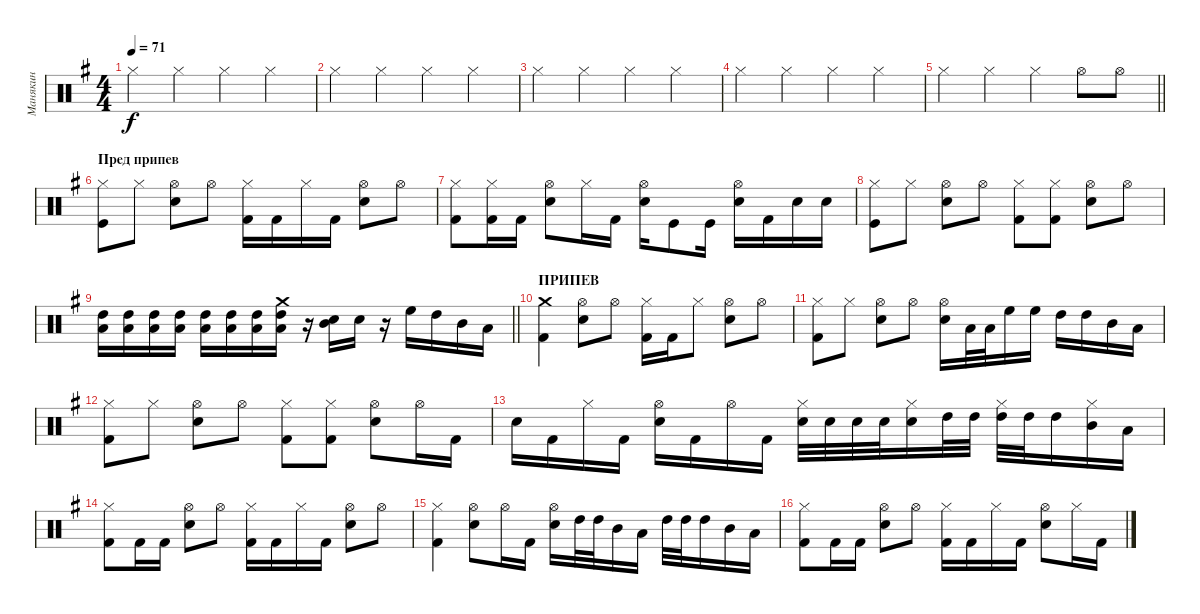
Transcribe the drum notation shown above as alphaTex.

\track ("Манякин" "Манякин") {instrument percussion}
\staff {score}
\articulation defaults
\ts (4 4)
\tempo 71
\clef neutral
\ks eminor "Hi-Hat (closed)".4{dy f} "Hi-Hat (closed)".4 "Hi-Hat (closed)".4 "Hi-Hat (closed)".4
|
"Hi-Hat (closed)".4 "Hi-Hat (closed)".4 "Hi-Hat (closed)".4 "Hi-Hat (closed)".4 |
"Hi-Hat (closed)".4 "Hi-Hat (closed)".4 "Hi-Hat (closed)".4 "Hi-Hat (closed)".4 |
"Hi-Hat (closed)".4 "Hi-Hat (closed)".4 "Hi-Hat (closed)".4 "Hi-Hat (closed)".4 |
\barLineRight lightlight "Hi-Hat (closed)".4 "Hi-Hat (closed)".4 "Hi-Hat (closed)".4 "Hi-Hat (open)".8 "Hi-Hat (open)".8
|
\section ("" "Пред припев")
("Hi-Hat (closed)" "Kick (hit)").8 "Hi-Hat (closed)".8 ("Hi-Hat (open)" "Snare (hit) 2").8 "Hi-Hat (open)".8 ("Hi-Hat (closed)" "Kick (hit) 2").16 "Kick (hit) 2".16 "Hi-Hat (closed)".16 "Kick (hit) 2".16 ("Hi-Hat (open)" "Snare (hit) 2").8 "Hi-Hat (open)".8 |
("Hi-Hat (closed)" "Kick (hit) 2").8 ("Hi-Hat (closed)" "Kick (hit) 2").16 "Kick (hit) 2".16 ("Hi-Hat (open)" "Snare (hit) 2").8 "Hi-Hat (closed)".16 "Kick (hit) 2".16 ("Hi-Hat (open)" "Snare (hit) 2").16 "Kick (hit)".8 "Kick (hit)".16 ("Hi-Hat (open)" "Snare (hit) 2").16 "Kick (hit) 2".16 "Snare (hit) 2".16 "Snare (hit) 2".16 |
("Hi-Hat (closed)" "Kick (hit)").8 "Hi-Hat (closed)".8 ("Hi-Hat (open)" "Snare (hit) 2").8 "Hi-Hat (open)".8 ("Hi-Hat (closed)" "Kick (hit) 2").8 ("Hi-Hat (closed)" "Kick (hit) 2").8 ("Hi-Hat (open)" "Snare (hit) 2").8 "Hi-Hat (open)".8 |
\barLineRight lightlight
("Low Tom (hit)" "High Tom (hit)").16 ("Low Tom (hit)" "High Tom (hit)").16 ("Low Tom (hit)" "High Tom (hit)").16 ("Low Tom (hit)" "High Tom (hit)").16 ("Low Tom (hit)" "High Tom (hit)").16 ("Low Tom (hit)" "High Tom (hit)").16 ("Low Tom (hit)" "High Tom (hit)").16 ("Crash medium (hit)" "Low Tom (hit)" "High Tom (hit)").16 r.16 ("Mid Tom (hit)" "Snare (hit) 2").16 "Snare (hit) 2".16 r.16 "High Floor Tom (hit)".16 "High Tom (hit)".16 "Mid Tom (hit)".16 "Low Tom (hit)".16 |
\section ("" "ПРИПЕВ")
("Crash medium (hit)" "Kick (hit) 2").4 ("Hi-Hat (open)" "Snare (hit) 2").8 "Hi-Hat (open)".8 ("Hi-Hat (closed)" "Kick (hit) 2").16 "Kick (hit) 2".16 "Hi-Hat (closed)".8 ("Hi-Hat (open)" "Snare (hit) 2").8 "Hi-Hat (open)".8 |
("Hi-Hat (closed)" "Kick (hit) 2").8 "Hi-Hat (closed)".8 ("Hi-Hat (open)" "Snare (hit) 2").8 "Hi-Hat (open)".8 ("Hi-Hat (open)" "Snare (hit) 2").16 "Low Tom (hit)".32 "Low Tom (hit)".32 "High Floor Tom (hit)".16 "High Floor Tom (hit)".16 "High Tom (hit)".16 "High Tom (hit)".16 "Mid Tom (hit)".16 "Low Tom (hit)".16 |
("Hi-Hat (closed)" "Kick (hit) 2").8 "Hi-Hat (closed)".8 ("Hi-Hat (open)" "Snare (hit) 2").8 "Hi-Hat (open)".8 ("Hi-Hat (closed)" "Kick (hit) 2").8 ("Hi-Hat (closed)" "Kick (hit) 2").8 ("Hi-Hat (open)" "Snare (hit) 2").8 "Hi-Hat (open)".16 "Kick (hit) 2".16 |
"Snare (hit) 2".16 "Kick (hit) 2".16 "Hi-Hat (closed)".16 "Kick (hit) 2".16 ("Hi-Hat (open)" "Snare (hit) 2").16 "Kick (hit) 2".16 "Hi-Hat (open)".16 "Kick (hit) 2".16 ("Hi-Hat (closed)" "Snare (hit) 2").32 "Snare (hit) 2".32 "Snare (hit) 2".32 "Snare (hit) 2".32 ("Hi-Hat (closed)" "Snare (hit) 2").16 "High Tom (hit)".32 "High Tom (hit)".32 ("Hi-Hat (closed)" "High Tom (hit)").32 "High Tom (hit)".32 "High Tom (hit)".16 ("Hi-Hat (closed)" "Mid Tom (hit)").16 "Low Tom (hit)".16 |
("Hi-Hat (closed)" "Kick (hit) 2").8 "Kick (hit) 2".16 "Kick (hit) 2".16 ("Hi-Hat (open)" "Snare (hit) 2").8 "Hi-Hat (open)".8 ("Hi-Hat (closed)" "Kick (hit) 2").16 "Kick (hit) 2".16 "Hi-Hat (closed)".16 "Kick (hit) 2".16 ("Hi-Hat (open)" "Snare (hit) 2").8 "Hi-Hat (open)".8 |
("Hi-Hat (closed)" "Kick (hit) 2").4 ("Hi-Hat (open)" "Snare (hit) 2").8 "Hi-Hat (open)".16 "Kick (hit) 2".16 ("Hi-Hat (open)" "Snare (hit) 2").16 "High Tom (hit)".32 "High Tom (hit)".32 "Mid Tom (hit)".16 "Low Tom (hit)".16 "High Tom (hit)".32 "High Tom (hit)".32 "High Tom (hit)".16 "Mid Tom (hit)".16 "Low Tom (hit)".16 |
("Hi-Hat (closed)" "Kick (hit) 2").8 "Kick (hit) 2".16 "Kick (hit) 2".16 ("Hi-Hat (open)" "Snare (hit) 2").8 "Hi-Hat (open)".8 ("Hi-Hat (closed)" "Kick (hit) 2").16 "Kick (hit) 2".16 "Hi-Hat (closed)".16 "Kick (hit) 2".16 ("Hi-Hat (open)" "Snare (hit) 2").8 "Hi-Hat (closed)".16 "Kick (hit) 2".16
